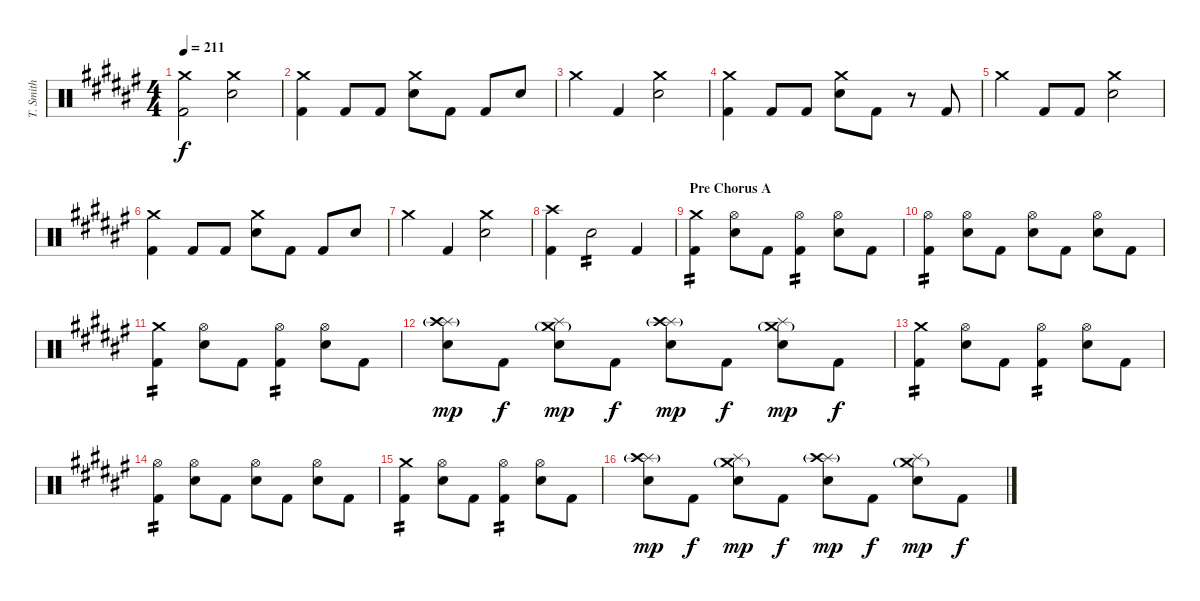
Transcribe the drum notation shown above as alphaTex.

\track ("T. Smith" "T. Smith") {instrument percussion}
\staff {score}
\articulation defaults
\ts (4 4)
\tempo 211
\clef neutral
\ks d#minor
("Crash medium (hit)" "Kick (hit) 2").2{dy f} ("Crash medium (hit)" "Electric Snare (hit)").2 |
("Crash medium (hit)" "Kick (hit) 2").4 "Kick (hit) 2".8 "Kick (hit) 2".8 ("Crash medium (hit)" "Electric Snare (hit)").8 "Kick (hit) 2".8 "Kick (hit) 2".8 "Electric Snare (hit)".8 |
"Crash medium (hit)".4 "Kick (hit) 2".4 ("Crash medium (hit)" "Electric Snare (hit)").2 |
("Crash medium (hit)" "Kick (hit) 2").4 "Kick (hit) 2".8 "Kick (hit) 2".8 ("Crash medium (hit)" "Electric Snare (hit)").8 "Kick (hit) 2".8 r.8 "Kick (hit) 2".8 |
"Crash medium (hit)".4 "Kick (hit) 2".8 "Kick (hit) 2".8 ("Crash medium (hit)" "Electric Snare (hit)").2 |
("Crash medium (hit)" "Kick (hit) 2").4 "Kick (hit) 2".8 "Kick (hit) 2".8 ("Crash medium (hit)" "Electric Snare (hit)").8 "Kick (hit) 2".8 "Kick (hit) 2".8 "Electric Snare (hit)".8 |
"Crash medium (hit)".4 "Kick (hit) 2".4 ("Crash medium (hit)" "Electric Snare (hit)").2 |
("Crash high (hit)" "Kick (hit) 2").4 "Electric Snare (hit)".2{tp 2} "Kick (hit) 2".4 |
\section ("" "Pre Chorus A")
("Crash medium (hit)" "Kick (hit) 2").4{tp 2} ("Hi-Hat (open)" "Electric Snare (hit)").8 "Kick (hit) 2".8 ("Hi-Hat (open)" "Kick (hit) 2").4{tp 2} ("Hi-Hat (open)" "Electric Snare (hit)").8 "Kick (hit) 2".8 |
("Hi-Hat (open)" "Kick (hit) 2").4{tp 2} ("Hi-Hat (open)" "Electric Snare (hit)").8 "Kick (hit) 2".8 ("Hi-Hat (open)" "Electric Snare (hit)").8 "Kick (hit) 2".8 ("Hi-Hat (open)" "Electric Snare (hit)").8 "Kick (hit) 2".8 |
("Crash medium (hit)" "Kick (hit) 2").4{tp 2} ("Hi-Hat (open)" "Electric Snare (hit)").8 "Kick (hit) 2".8 ("Hi-Hat (open)" "Kick (hit) 2").4{tp 2} ("Hi-Hat (open)" "Electric Snare (hit)").8 "Kick (hit) 2".8 |
("Splash (hit)" "Crash high (hit)"{g} "Electric Snare (hit)").8{dy mp} "Kick (hit) 2".8{dy f} ("Splash (hit)" "Crash medium (hit)"{g} "Electric Snare (hit)").8{dy mp} "Kick (hit) 2".8{dy f} ("Splash (hit)" "Crash high (hit)"{g} "Electric Snare (hit)").8{dy mp} "Kick (hit) 2".8{dy f} ("Splash (hit)" "Crash medium (hit)"{g} "Electric Snare (hit)").8{dy mp} "Kick (hit) 2".8{dy f} |
("Crash medium (hit)" "Kick (hit) 2").4{tp 2} ("Hi-Hat (open)" "Electric Snare (hit)").8 "Kick (hit) 2".8 ("Hi-Hat (open)" "Kick (hit) 2").4{tp 2} ("Hi-Hat (open)" "Electric Snare (hit)").8 "Kick (hit) 2".8 |
("Hi-Hat (open)" "Kick (hit) 2").4{tp 2} ("Hi-Hat (open)" "Electric Snare (hit)").8 "Kick (hit) 2".8 ("Hi-Hat (open)" "Electric Snare (hit)").8 "Kick (hit) 2".8 ("Hi-Hat (open)" "Electric Snare (hit)").8 "Kick (hit) 2".8 |
("Crash medium (hit)" "Kick (hit) 2").4{tp 2} ("Hi-Hat (open)" "Electric Snare (hit)").8 "Kick (hit) 2".8 ("Hi-Hat (open)" "Kick (hit) 2").4{tp 2} ("Hi-Hat (open)" "Electric Snare (hit)").8 "Kick (hit) 2".8 |
("Splash (hit)" "Crash high (hit)"{g} "Electric Snare (hit)").8{dy mp} "Kick (hit) 2".8{dy f} ("Splash (hit)" "Crash medium (hit)"{g} "Electric Snare (hit)").8{dy mp} "Kick (hit) 2".8{dy f} ("Splash (hit)" "Crash high (hit)"{g} "Electric Snare (hit)").8{dy mp} "Kick (hit) 2".8{dy f} ("Splash (hit)" "Crash medium (hit)"{g} "Electric Snare (hit)").8{dy mp} "Kick (hit) 2".8{dy f}
